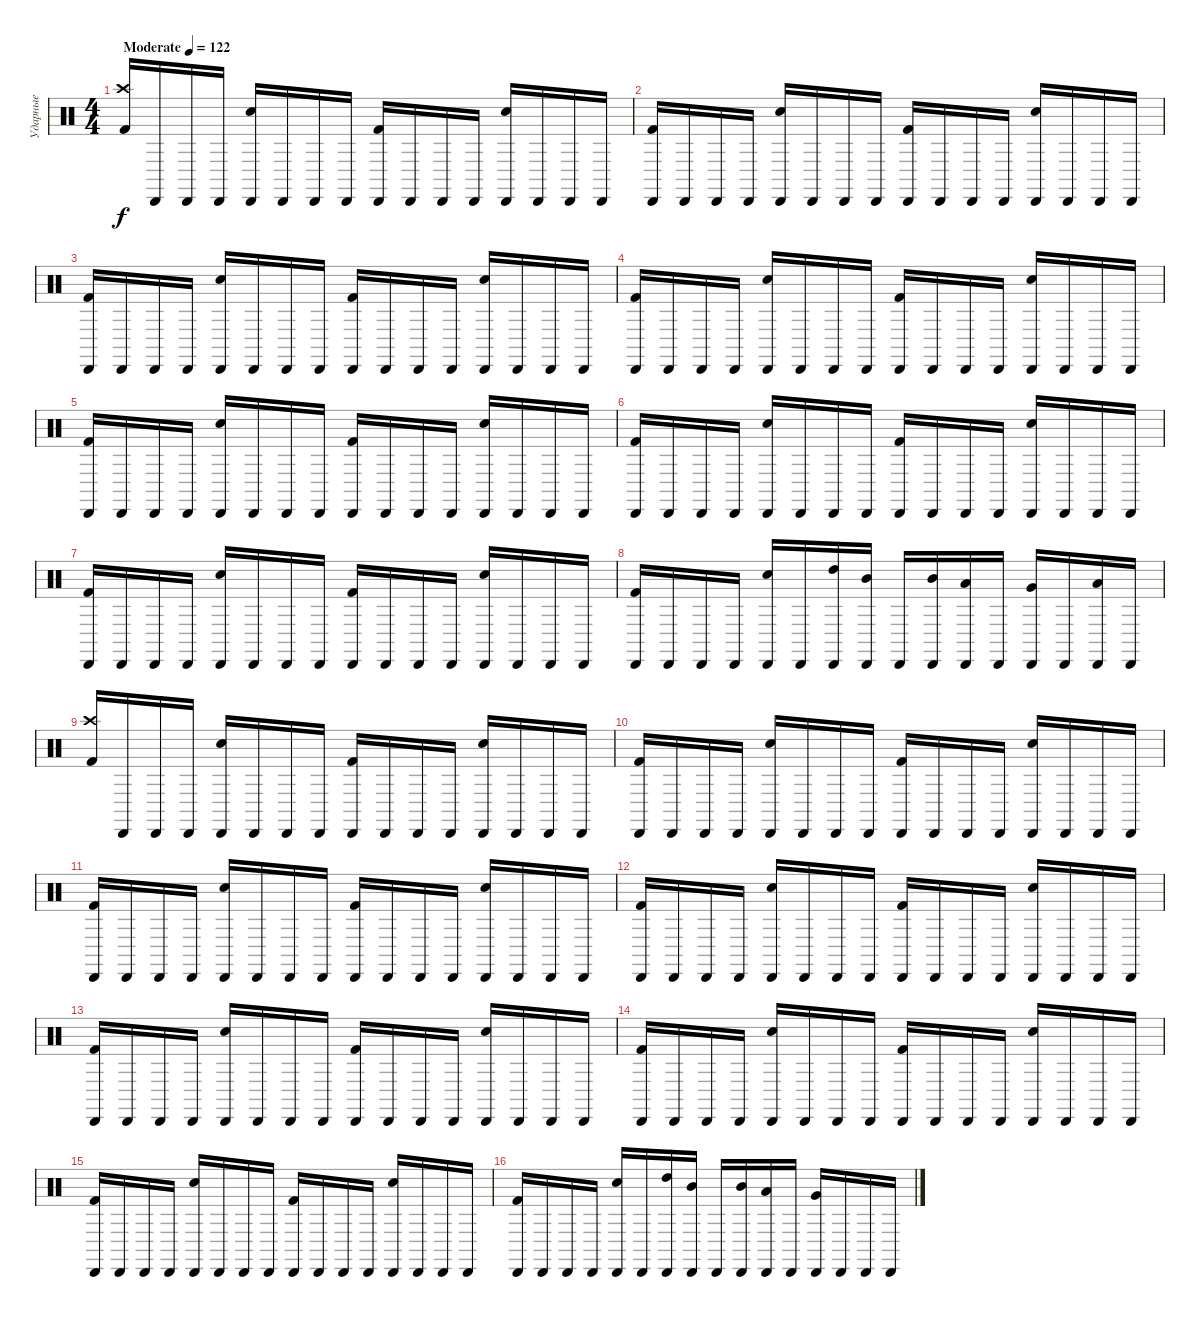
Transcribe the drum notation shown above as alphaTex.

\track ("Ударные" "Ударные") {instrument percussion}
\staff {score}
\articulation defaults
\ts (4 4)
\tempo (122 "Moderate")
\clef neutral
\ks c
("Crash high (hit)" "Kick (hit) 2").16{dy f} "Cabasa (hit)".16 "Cabasa (hit)".16 "Cabasa (hit)".16 ("Cabasa (hit)" "Snare (hit) 2").16 "Cabasa (hit)".16 "Cabasa (hit)".16 "Cabasa (hit)".16 ("Cabasa (hit)" "Kick (hit) 2").16 "Cabasa (hit)".16 "Cabasa (hit)".16 "Cabasa (hit)".16 ("Cabasa (hit)" "Snare (hit) 2").16 "Cabasa (hit)".16 "Cabasa (hit)".16 "Cabasa (hit)".16 |
("Cabasa (hit)" "Kick (hit) 2").16 "Cabasa (hit)".16 "Cabasa (hit)".16 "Cabasa (hit)".16 ("Cabasa (hit)" "Snare (hit) 2").16 "Cabasa (hit)".16 "Cabasa (hit)".16 "Cabasa (hit)".16 ("Cabasa (hit)" "Kick (hit) 2").16 "Cabasa (hit)".16 "Cabasa (hit)".16 "Cabasa (hit)".16 ("Cabasa (hit)" "Snare (hit) 2").16 "Cabasa (hit)".16 "Cabasa (hit)".16 "Cabasa (hit)".16 |
("Cabasa (hit)" "Kick (hit) 2").16 "Cabasa (hit)".16 "Cabasa (hit)".16 "Cabasa (hit)".16 ("Cabasa (hit)" "Snare (hit) 2").16 "Cabasa (hit)".16 "Cabasa (hit)".16 "Cabasa (hit)".16 ("Cabasa (hit)" "Kick (hit) 2").16 "Cabasa (hit)".16 "Cabasa (hit)".16 "Cabasa (hit)".16 ("Cabasa (hit)" "Snare (hit) 2").16 "Cabasa (hit)".16 "Cabasa (hit)".16 "Cabasa (hit)".16 |
("Cabasa (hit)" "Kick (hit) 2").16 "Cabasa (hit)".16 "Cabasa (hit)".16 "Cabasa (hit)".16 ("Cabasa (hit)" "Snare (hit) 2").16 "Cabasa (hit)".16 "Cabasa (hit)".16 "Cabasa (hit)".16 ("Cabasa (hit)" "Kick (hit) 2").16 "Cabasa (hit)".16 "Cabasa (hit)".16 "Cabasa (hit)".16 ("Cabasa (hit)" "Snare (hit) 2").16 "Cabasa (hit)".16 "Cabasa (hit)".16 "Cabasa (hit)".16 |
("Cabasa (hit)" "Kick (hit) 2").16 "Cabasa (hit)".16 "Cabasa (hit)".16 "Cabasa (hit)".16 ("Cabasa (hit)" "Snare (hit) 2").16 "Cabasa (hit)".16 "Cabasa (hit)".16 "Cabasa (hit)".16 ("Cabasa (hit)" "Kick (hit) 2").16 "Cabasa (hit)".16 "Cabasa (hit)".16 "Cabasa (hit)".16 ("Cabasa (hit)" "Snare (hit) 2").16 "Cabasa (hit)".16 "Cabasa (hit)".16 "Cabasa (hit)".16 |
("Cabasa (hit)" "Kick (hit) 2").16 "Cabasa (hit)".16 "Cabasa (hit)".16 "Cabasa (hit)".16 ("Cabasa (hit)" "Snare (hit) 2").16 "Cabasa (hit)".16 "Cabasa (hit)".16 "Cabasa (hit)".16 ("Cabasa (hit)" "Kick (hit) 2").16 "Cabasa (hit)".16 "Cabasa (hit)".16 "Cabasa (hit)".16 ("Cabasa (hit)" "Snare (hit) 2").16 "Cabasa (hit)".16 "Cabasa (hit)".16 "Cabasa (hit)".16 |
("Cabasa (hit)" "Kick (hit) 2").16 "Cabasa (hit)".16 "Cabasa (hit)".16 "Cabasa (hit)".16 ("Cabasa (hit)" "Snare (hit) 2").16 "Cabasa (hit)".16 "Cabasa (hit)".16 "Cabasa (hit)".16 ("Cabasa (hit)" "Kick (hit) 2").16 "Cabasa (hit)".16 "Cabasa (hit)".16 "Cabasa (hit)".16 ("Cabasa (hit)" "Snare (hit) 2").16 "Cabasa (hit)".16 "Cabasa (hit)".16 "Cabasa (hit)".16 |
("Cabasa (hit)" "Kick (hit) 2").16 "Cabasa (hit)".16 "Cabasa (hit)".16 "Cabasa (hit)".16 ("Cabasa (hit)" "Snare (hit) 2").16 "Cabasa (hit)".16 ("Cabasa (hit)" "High Tom (hit)").16 ("Cabasa (hit)" "Mid Tom (hit)").16 "Cabasa (hit)".16 ("Cabasa (hit)" "Mid Tom (hit)").16 ("Cabasa (hit)" "Low Tom (hit)").16 "Cabasa (hit)".16 ("Cabasa (hit)" "Very Low Tom (hit)").16 "Cabasa (hit)".16 ("Cabasa (hit)" "Low Floor Tom (hit)").16 "Cabasa (hit)".16 |
("Crash high (hit)" "Kick (hit) 2").16 "Cabasa (hit)".16 "Cabasa (hit)".16 "Cabasa (hit)".16 ("Cabasa (hit)" "Snare (hit) 2").16 "Cabasa (hit)".16 "Cabasa (hit)".16 "Cabasa (hit)".16 ("Cabasa (hit)" "Kick (hit) 2").16 "Cabasa (hit)".16 "Cabasa (hit)".16 "Cabasa (hit)".16 ("Cabasa (hit)" "Snare (hit) 2").16 "Cabasa (hit)".16 "Cabasa (hit)".16 "Cabasa (hit)".16 |
("Cabasa (hit)" "Kick (hit) 2").16 "Cabasa (hit)".16 "Cabasa (hit)".16 "Cabasa (hit)".16 ("Cabasa (hit)" "Snare (hit) 2").16 "Cabasa (hit)".16 "Cabasa (hit)".16 "Cabasa (hit)".16 ("Cabasa (hit)" "Kick (hit) 2").16 "Cabasa (hit)".16 "Cabasa (hit)".16 "Cabasa (hit)".16 ("Cabasa (hit)" "Snare (hit) 2").16 "Cabasa (hit)".16 "Cabasa (hit)".16 "Cabasa (hit)".16 |
("Cabasa (hit)" "Kick (hit) 2").16 "Cabasa (hit)".16 "Cabasa (hit)".16 "Cabasa (hit)".16 ("Cabasa (hit)" "Snare (hit) 2").16 "Cabasa (hit)".16 "Cabasa (hit)".16 "Cabasa (hit)".16 ("Cabasa (hit)" "Kick (hit) 2").16 "Cabasa (hit)".16 "Cabasa (hit)".16 "Cabasa (hit)".16 ("Cabasa (hit)" "Snare (hit) 2").16 "Cabasa (hit)".16 "Cabasa (hit)".16 "Cabasa (hit)".16 |
("Cabasa (hit)" "Kick (hit) 2").16 "Cabasa (hit)".16 "Cabasa (hit)".16 "Cabasa (hit)".16 ("Cabasa (hit)" "Snare (hit) 2").16 "Cabasa (hit)".16 "Cabasa (hit)".16 "Cabasa (hit)".16 ("Cabasa (hit)" "Kick (hit) 2").16 "Cabasa (hit)".16 "Cabasa (hit)".16 "Cabasa (hit)".16 ("Cabasa (hit)" "Snare (hit) 2").16 "Cabasa (hit)".16 "Cabasa (hit)".16 "Cabasa (hit)".16 |
("Cabasa (hit)" "Kick (hit) 2").16 "Cabasa (hit)".16 "Cabasa (hit)".16 "Cabasa (hit)".16 ("Cabasa (hit)" "Snare (hit) 2").16 "Cabasa (hit)".16 "Cabasa (hit)".16 "Cabasa (hit)".16 ("Cabasa (hit)" "Kick (hit) 2").16 "Cabasa (hit)".16 "Cabasa (hit)".16 "Cabasa (hit)".16 ("Cabasa (hit)" "Snare (hit) 2").16 "Cabasa (hit)".16 "Cabasa (hit)".16 "Cabasa (hit)".16 |
("Cabasa (hit)" "Kick (hit) 2").16 "Cabasa (hit)".16 "Cabasa (hit)".16 "Cabasa (hit)".16 ("Cabasa (hit)" "Snare (hit) 2").16 "Cabasa (hit)".16 "Cabasa (hit)".16 "Cabasa (hit)".16 ("Cabasa (hit)" "Kick (hit) 2").16 "Cabasa (hit)".16 "Cabasa (hit)".16 "Cabasa (hit)".16 ("Cabasa (hit)" "Snare (hit) 2").16 "Cabasa (hit)".16 "Cabasa (hit)".16 "Cabasa (hit)".16 |
("Cabasa (hit)" "Kick (hit) 2").16 "Cabasa (hit)".16 "Cabasa (hit)".16 "Cabasa (hit)".16 ("Cabasa (hit)" "Snare (hit) 2").16 "Cabasa (hit)".16 "Cabasa (hit)".16 "Cabasa (hit)".16 ("Cabasa (hit)" "Kick (hit) 2").16 "Cabasa (hit)".16 "Cabasa (hit)".16 "Cabasa (hit)".16 ("Cabasa (hit)" "Snare (hit) 2").16 "Cabasa (hit)".16 "Cabasa (hit)".16 "Cabasa (hit)".16 |
("Cabasa (hit)" "Kick (hit) 2").16 "Cabasa (hit)".16 "Cabasa (hit)".16 "Cabasa (hit)".16 ("Cabasa (hit)" "Snare (hit) 2").16 "Cabasa (hit)".16 ("Cabasa (hit)" "High Tom (hit)").16 ("Cabasa (hit)" "Mid Tom (hit)").16 "Cabasa (hit)".16 ("Cabasa (hit)" "Mid Tom (hit)").16 ("Cabasa (hit)" "Low Tom (hit)").16 "Cabasa (hit)".16 ("Cabasa (hit)" "Very Low Tom (hit)").16 "Cabasa (hit)".16 "Cabasa (hit)".16 "Cabasa (hit)".16
